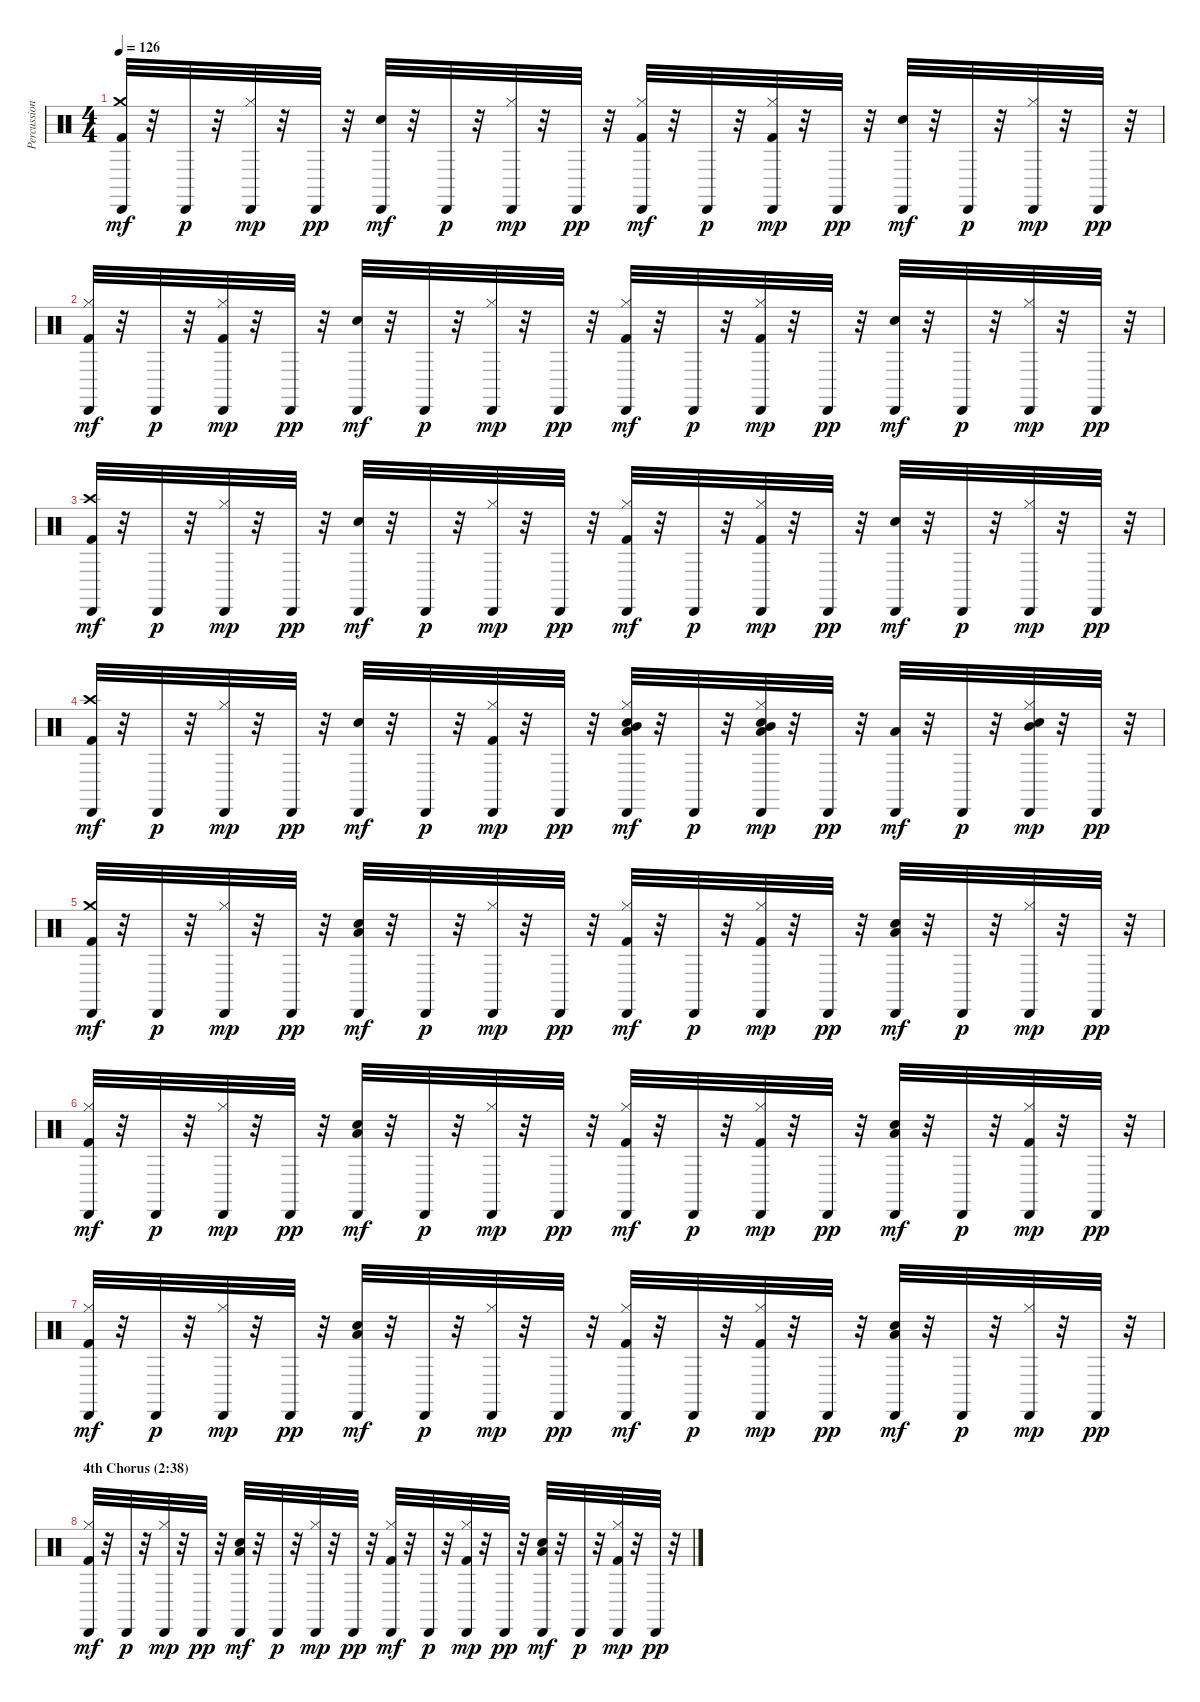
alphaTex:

\track ("Percussions" "Percussion") {instrument percussion}
\staff {score}
\articulation defaults
\ts (4 4)
\tempo 126
\clef neutral
\ks c
("Kick (hit) 2" "Crash medium (hit)" "Cabasa (hit)").32{dy mf} r.32 "Cabasa (hit)".32{dy p} r.32 ("Hi-Hat (closed)" "Cabasa (hit)").32{dy mp} r.32 "Cabasa (hit)".32{dy pp} r.32 ("Electric Snare (hit)" "Cabasa (hit)").32{dy mf} r.32 "Cabasa (hit)".32{dy p} r.32 ("Hi-Hat (closed)" "Cabasa (hit)").32{dy mp} r.32 "Cabasa (hit)".32{dy pp} r.32 ("Kick (hit) 2" "Hi-Hat (closed)" "Cabasa (hit)").32{dy mf} r.32 "Cabasa (hit)".32{dy p} r.32 ("Kick (hit) 2" "Hi-Hat (closed)" "Cabasa (hit)").32{dy mp} r.32 "Cabasa (hit)".32{dy pp} r.32 ("Electric Snare (hit)" "Cabasa (hit)").32{dy mf} r.32 "Cabasa (hit)".32{dy p} r.32 ("Hi-Hat (closed)" "Cabasa (hit)").32{dy mp} r.32 "Cabasa (hit)".32{dy pp} r.32 |
("Kick (hit) 2" "Hi-Hat (closed)" "Cabasa (hit)").32{dy mf} r.32 "Cabasa (hit)".32{dy p} r.32 ("Kick (hit) 2" "Hi-Hat (closed)" "Cabasa (hit)").32{dy mp} r.32 "Cabasa (hit)".32{dy pp} r.32 ("Electric Snare (hit)" "Cabasa (hit)").32{dy mf} r.32 "Cabasa (hit)".32{dy p} r.32 ("Hi-Hat (closed)" "Cabasa (hit)").32{dy mp} r.32 "Cabasa (hit)".32{dy pp} r.32 ("Kick (hit) 2" "Hi-Hat (closed)" "Cabasa (hit)").32{dy mf} r.32 "Cabasa (hit)".32{dy p} r.32 ("Kick (hit) 2" "Hi-Hat (closed)" "Cabasa (hit)").32{dy mp} r.32 "Cabasa (hit)".32{dy pp} r.32 ("Electric Snare (hit)" "Cabasa (hit)").32{dy mf} r.32 "Cabasa (hit)".32{dy p} r.32 ("Hi-Hat (closed)" "Cabasa (hit)").32{dy mp} r.32 "Cabasa (hit)".32{dy pp} r.32 |
("Kick (hit) 2" "Crash high (hit)" "Cabasa (hit)").32{dy mf} r.32 "Cabasa (hit)".32{dy p} r.32 ("Hi-Hat (closed)" "Cabasa (hit)").32{dy mp} r.32 "Cabasa (hit)".32{dy pp} r.32 ("Electric Snare (hit)" "Cabasa (hit)").32{dy mf} r.32 "Cabasa (hit)".32{dy p} r.32 ("Hi-Hat (closed)" "Cabasa (hit)").32{dy mp} r.32 "Cabasa (hit)".32{dy pp} r.32 ("Kick (hit) 2" "Hi-Hat (closed)" "Cabasa (hit)").32{dy mf} r.32 "Cabasa (hit)".32{dy p} r.32 ("Kick (hit) 2" "Hi-Hat (closed)" "Cabasa (hit)").32{dy mp} r.32 "Cabasa (hit)".32{dy pp} r.32 ("Electric Snare (hit)" "Cabasa (hit)").32{dy mf} r.32 "Cabasa (hit)".32{dy p} r.32 ("Hi-Hat (closed)" "Cabasa (hit)").32{dy mp} r.32 "Cabasa (hit)".32{dy pp} r.32 |
("Kick (hit) 2" "Crash high (hit)" "Cabasa (hit)").32{dy mf} r.32 "Cabasa (hit)".32{dy p} r.32 ("Hi-Hat (closed)" "Cabasa (hit)").32{dy mp} r.32 "Cabasa (hit)".32{dy pp} r.32 ("Electric Snare (hit)" "Cabasa (hit)").32{dy mf} r.32 "Cabasa (hit)".32{dy p} r.32 ("Kick (hit) 2" "Hi-Hat (closed)" "Cabasa (hit)").32{dy mp} r.32 "Cabasa (hit)".32{dy pp} r.32 ("Electric Snare (hit)" "Hi-Hat (closed)" "Low Tom (hit)" "Mid Tom (hit)" "Cabasa (hit)").32{dy mf} r.32 "Cabasa (hit)".32{dy p} r.32 ("Electric Snare (hit)" "Hi-Hat (closed)" "Low Tom (hit)" "Mid Tom (hit)" "Cabasa (hit)").32{dy mp} r.32 "Cabasa (hit)".32{dy pp} r.32 ("Low Tom (hit)" "Cabasa (hit)").32{dy mf} r.32 "Cabasa (hit)".32{dy p} r.32 ("Electric Snare (hit)" "Hi-Hat (closed)" "Mid Tom (hit)" "Cabasa (hit)").32{dy mp} r.32 "Cabasa (hit)".32{dy pp} r.32 |
("Kick (hit) 2" "Crash medium (hit)" "Cabasa (hit)").32{dy mf} r.32 "Cabasa (hit)".32{dy p} r.32 ("Hi-Hat (closed)" "Cabasa (hit)").32{dy mp} r.32 "Cabasa (hit)".32{dy pp} r.32 ("Electric Snare (hit)" "Low Tom (hit)" "Cabasa (hit)").32{dy mf} r.32 "Cabasa (hit)".32{dy p} r.32 ("Hi-Hat (closed)" "Cabasa (hit)").32{dy mp} r.32 "Cabasa (hit)".32{dy pp} r.32 ("Kick (hit) 2" "Hi-Hat (closed)" "Cabasa (hit)").32{dy mf} r.32 "Cabasa (hit)".32{dy p} r.32 ("Kick (hit) 2" "Hi-Hat (closed)" "Cabasa (hit)").32{dy mp} r.32 "Cabasa (hit)".32{dy pp} r.32 ("Electric Snare (hit)" "Low Tom (hit)" "Cabasa (hit)").32{dy mf} r.32 "Cabasa (hit)".32{dy p} r.32 ("Hi-Hat (closed)" "Cabasa (hit)").32{dy mp} r.32 "Cabasa (hit)".32{dy pp} r.32 |
("Kick (hit) 2" "Hi-Hat (closed)" "Cabasa (hit)").32{dy mf} r.32 "Cabasa (hit)".32{dy p} r.32 ("Hi-Hat (closed)" "Cabasa (hit)").32{dy mp} r.32 "Cabasa (hit)".32{dy pp} r.32 ("Electric Snare (hit)" "Low Tom (hit)" "Cabasa (hit)").32{dy mf} r.32 "Cabasa (hit)".32{dy p} r.32 ("Hi-Hat (closed)" "Cabasa (hit)").32{dy mp} r.32 "Cabasa (hit)".32{dy pp} r.32 ("Kick (hit) 2" "Hi-Hat (closed)" "Cabasa (hit)").32{dy mf} r.32 "Cabasa (hit)".32{dy p} r.32 ("Kick (hit) 2" "Hi-Hat (closed)" "Cabasa (hit)").32{dy mp} r.32 "Cabasa (hit)".32{dy pp} r.32 ("Electric Snare (hit)" "Low Tom (hit)" "Cabasa (hit)").32{dy mf} r.32 "Cabasa (hit)".32{dy p} r.32 ("Kick (hit) 2" "Hi-Hat (closed)" "Cabasa (hit)").32{dy mp} r.32 "Cabasa (hit)".32{dy pp} r.32 |
("Kick (hit) 2" "Hi-Hat (closed)" "Cabasa (hit)").32{dy mf} r.32 "Cabasa (hit)".32{dy p} r.32 ("Hi-Hat (closed)" "Cabasa (hit)").32{dy mp} r.32 "Cabasa (hit)".32{dy pp} r.32 ("Electric Snare (hit)" "Low Tom (hit)" "Cabasa (hit)").32{dy mf} r.32 "Cabasa (hit)".32{dy p} r.32 ("Hi-Hat (closed)" "Cabasa (hit)").32{dy mp} r.32 "Cabasa (hit)".32{dy pp} r.32 ("Kick (hit) 2" "Hi-Hat (closed)" "Cabasa (hit)").32{dy mf} r.32 "Cabasa (hit)".32{dy p} r.32 ("Kick (hit) 2" "Hi-Hat (closed)" "Cabasa (hit)").32{dy mp} r.32 "Cabasa (hit)".32{dy pp} r.32 ("Electric Snare (hit)" "Low Tom (hit)" "Cabasa (hit)").32{dy mf} r.32 "Cabasa (hit)".32{dy p} r.32 ("Hi-Hat (closed)" "Cabasa (hit)").32{dy mp} r.32 "Cabasa (hit)".32{dy pp} r.32 |
\section ("" "4th Chorus (2:38)")
("Kick (hit) 2" "Hi-Hat (closed)" "Cabasa (hit)").32{dy mf} r.32 "Cabasa (hit)".32{dy p} r.32 ("Hi-Hat (closed)" "Cabasa (hit)").32{dy mp} r.32 "Cabasa (hit)".32{dy pp} r.32 ("Electric Snare (hit)" "Low Tom (hit)" "Cabasa (hit)").32{dy mf} r.32 "Cabasa (hit)".32{dy p} r.32 ("Hi-Hat (closed)" "Cabasa (hit)").32{dy mp} r.32 "Cabasa (hit)".32{dy pp} r.32 ("Kick (hit) 2" "Hi-Hat (closed)" "Cabasa (hit)").32{dy mf} r.32 "Cabasa (hit)".32{dy p} r.32 ("Kick (hit) 2" "Hi-Hat (closed)" "Cabasa (hit)").32{dy mp} r.32 "Cabasa (hit)".32{dy pp} r.32 ("Electric Snare (hit)" "Low Tom (hit)" "Cabasa (hit)").32{dy mf} r.32 "Cabasa (hit)".32{dy p} r.32 ("Kick (hit) 2" "Hi-Hat (closed)" "Cabasa (hit)").32{dy mp} r.32 "Cabasa (hit)".32{dy pp} r.32
